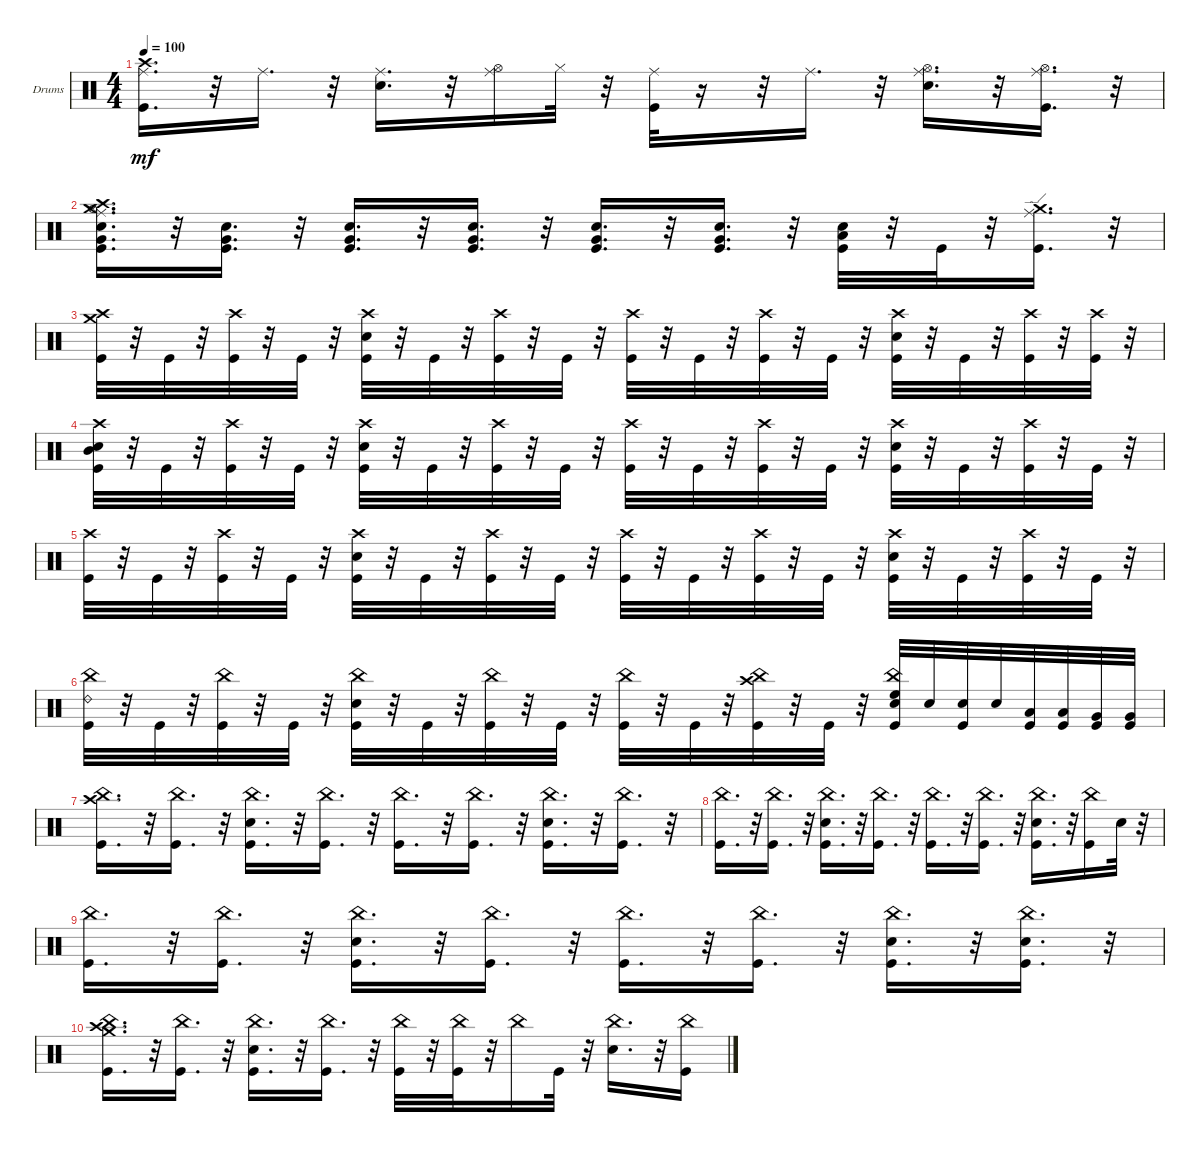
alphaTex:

\bracketExtendMode groupsimilarinstruments
\firstSystemTrackNameOrientation horizontal
\otherSystemsTrackNameOrientation horizontal
\track ("Drums" "Drums") {instrument percussion}
\staff {score}
\articulation defaults
\ts (4 4)
\tempo 100
\clef neutral
\ks c
("Ride (middle)" "Kick (hit)" "Crash high (hit)").16{d dy mf} r.32 "Ride (middle)".16{d} r.32 ("Snare (hit) 2" "Ride (middle)").16{d} r.32 ("Hi-Hat (open)" "Ride (middle)").16 "Hi-Hat (closed)".32 r.32 ("Kick (hit)" "Ride (middle)").32 r.16 r.32 "Ride (middle)".16{d} r.32 ("Snare (hit) 2" "Hi-Hat (open)" "Ride (middle)").16{d} r.32 ("Kick (hit)" "Hi-Hat (open)" "Ride (middle)").16{d} r.32 |
("Crash high (hit)" "Kick (hit)" "Snare (hit) 2" "Very Low Tom (hit)" "Hi-Hat (open)" "Crash medium (hit)" "Ride (middle)").16{d} r.32 ("Kick (hit)" "Snare (hit) 2" "Very Low Tom (hit)").16{d} r.32 ("Very Low Tom (hit)" "Snare (hit) 2" "Kick (hit)").16{d} r.32 ("Very Low Tom (hit)" "Snare (hit) 2" "Kick (hit)").16{d} r.32 ("Very Low Tom (hit)" "Snare (hit) 2" "Kick (hit)").16{d} r.32 ("Very Low Tom (hit)" "Snare (hit) 2" "Kick (hit)").16{d} r.32 ("Kick (hit)" "Snare (hit) 2" "Low Tom (hit)").32 r.32 "Kick (hit)".32 r.32 ("Crash medium (hit)" "Ride (edge)" "Kick (hit)").16{d} r.32 |
("Crash high (hit)" "Kick (hit)" "Crash medium (hit)").32 r.32 "Kick (hit)".32 r.32 ("Crash high (hit)" "Kick (hit)").32 r.32 "Kick (hit)".32 r.32 ("Crash high (hit)" "Snare (hit) 2" "Kick (hit)").32 r.32 "Kick (hit)".32 r.32 ("Crash high (hit)" "Kick (hit)").32 r.32 "Kick (hit)".32 r.32 ("Crash high (hit)" "Kick (hit)").32 r.32 "Kick (hit)".32 r.32 ("Crash high (hit)" "Kick (hit)").32 r.32 "Kick (hit)".32 r.32 ("Crash high (hit)" "Snare (hit) 2" "Kick (hit)").32 r.32 "Kick (hit)".32 r.32 ("Crash high (hit)" "Kick (hit)").32 r.32 ("Crash high (hit)" "Kick (hit)").32 r.32 |
("Crash high (hit)" "Mid Tom (hit)" "Snare (hit) 2" "Kick (hit)").32 r.32 "Kick (hit)".32 r.32 ("Crash high (hit)" "Kick (hit)").32 r.32 "Kick (hit)".32 r.32 ("Crash high (hit)" "Snare (hit) 2" "Kick (hit)").32 r.32 "Kick (hit)".32 r.32 ("Crash high (hit)" "Kick (hit)").32 r.32 "Kick (hit)".32 r.32 ("Crash high (hit)" "Kick (hit)").32 r.32 "Kick (hit)".32 r.32 ("Crash high (hit)" "Kick (hit)").32 r.32 "Kick (hit)".32 r.32 ("Crash high (hit)" "Snare (hit) 2" "Kick (hit)").32 r.32 "Kick (hit)".32 r.32 ("Crash high (hit)" "Kick (hit)").32 r.32 "Kick (hit)".32 r.32 |
("Crash high (hit)" "Kick (hit)").32 r.32 "Kick (hit)".32 r.32 ("Crash high (hit)" "Kick (hit)").32 r.32 "Kick (hit)".32 r.32 ("Crash high (hit)" "Snare (hit) 2" "Kick (hit)").32 r.32 "Kick (hit)".32 r.32 ("Crash high (hit)" "Kick (hit)").32 r.32 "Kick (hit)".32 r.32 ("Crash high (hit)" "Kick (hit)").32 r.32 "Kick (hit)".32 r.32 ("Crash high (hit)" "Kick (hit)").32 r.32 "Kick (hit)".32 r.32 ("Crash high (hit)" "Snare (hit) 2" "Kick (hit)").32 r.32 "Kick (hit)".32 r.32 ("Crash high (hit)" "Kick (hit)").32 r.32 "Kick (hit)".32 r.32 |
("China (hit)" "Kick (hit)" "Ride (bell) 2").32 r.32 "Kick (hit)".32 r.32 ("Kick (hit)" "China (hit)").32 r.32 "Kick (hit)".32 r.32 ("Kick (hit)" "Snare (hit) 2" "China (hit)").32 r.32 "Kick (hit)".32 r.32 ("Kick (hit)" "China (hit)").32 r.32 "Kick (hit)".32 r.32 ("Kick (hit)" "China (hit)").32 r.32 "Kick (hit)".32 r.32 ("Crash high (hit)" "Kick (hit)" "China (hit)").32 r.32 "Kick (hit)".32 r.32 ("High Floor Tom (hit)" "China (hit)" "Kick (hit)" "Snare (hit) 2").32 "Snare (hit) 2".32 ("Snare (hit) 2" "Kick (hit)").32 "Snare (hit) 2".32 ("Low Tom (hit)" "Kick (hit)").32 ("Low Tom (hit)" "Kick (hit)").32 ("Very Low Tom (hit)" "Kick (hit)").32 ("Very Low Tom (hit)" "Kick (hit)").32 |
("Crash high (hit)" "China (hit)" "Kick (hit)").16{d} r.32 ("China (hit)" "Kick (hit)").16{d} r.32 ("China (hit)" "Snare (hit) 2" "Kick (hit)").16{d} r.32 ("China (hit)" "Kick (hit)").16{d} r.32 ("China (hit)" "Kick (hit)").16{d} r.32 ("China (hit)" "Kick (hit)").16{d} r.32 ("China (hit)" "Snare (hit) 2" "Kick (hit)").16{d} r.32 ("China (hit)" "Kick (hit)").16{d} r.32 |
("China (hit)" "Kick (hit)").16{d} r.32 ("China (hit)" "Kick (hit)").16{d} r.32 ("China (hit)" "Snare (hit) 2" "Kick (hit)").16{d} r.32 ("China (hit)" "Kick (hit)").16{d} r.32 ("China (hit)" "Kick (hit)").16{d} r.32 ("China (hit)" "Kick (hit)").16{d} r.32 ("China (hit)" "Snare (hit) 2" "Kick (hit)").16{d} r.32 ("Kick (hit)" "China (hit)").16 "Snare (hit) 2".32 r.32 |
("Kick (hit)" "China (hit)").16{d} r.32 ("Kick (hit)" "China (hit)").16{d} r.32 ("Kick (hit)" "Snare (hit) 2" "China (hit)").16{d} r.32 ("Kick (hit)" "China (hit)").16{d} r.32 ("Kick (hit)" "China (hit)").16{d} r.32 ("Kick (hit)" "China (hit)").16{d} r.32 ("Kick (hit)" "Snare (hit) 2" "China (hit)").16{d} r.32 ("Kick (hit)" "Snare (hit) 2" "China (hit)").16{d} r.32 |
("Kick (hit)" "China (hit)" "Crash high (hit)" "Crash medium (hit)").16{d} r.32 ("China (hit)" "Kick (hit)").16{d} r.32 ("China (hit)" "Snare (hit) 2" "Kick (hit)").16{d} r.32 ("China (hit)" "Kick (hit)").16{d} r.32 ("China (hit)" "Kick (hit)").32 r.32 ("China (hit)" "Kick (hit)").32 r.32 "China (hit)".16 "Kick (hit)".32 r.32 ("China (hit)" "Snare (hit) 2").16{d} r.32 ("China (hit)" "Kick (hit)").16
